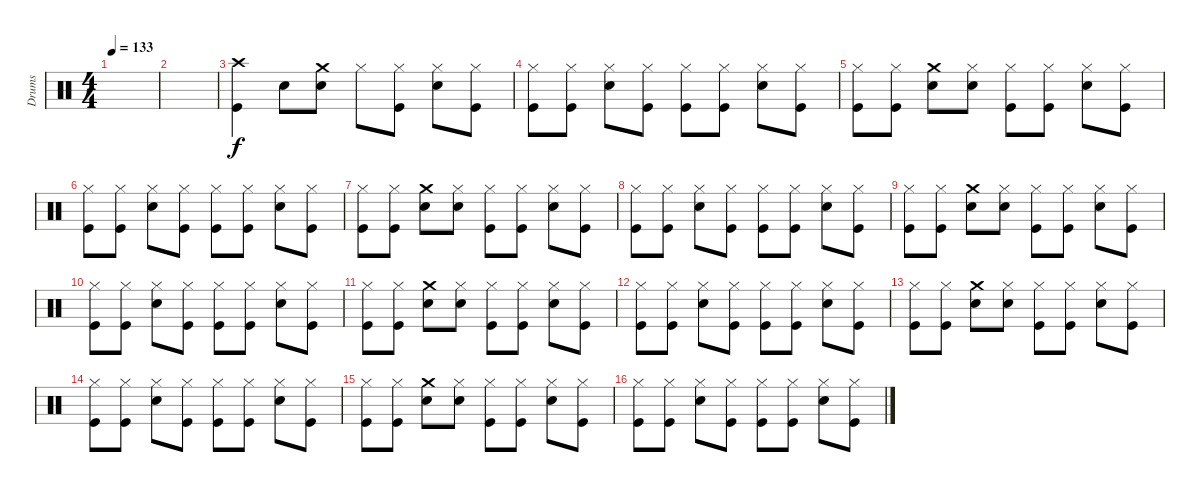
\track ("Drums" "Drums") {instrument percussion}
\staff {score}
\articulation defaults
\ts (4 4)
\tempo 133
\clef neutral
\ks c
|
|
("Crash high (hit)" "Kick (hit)").4 "Snare (hit) 2".8 ("Crash medium (hit)" "Snare (hit) 2").8 "Hi-Hat (closed)".8 ("Hi-Hat (closed)" "Kick (hit)").8 ("Hi-Hat (closed)" "Snare (hit) 2").8 ("Hi-Hat (closed)" "Kick (hit)").8 |
("Hi-Hat (closed)" "Kick (hit)").8 ("Hi-Hat (closed)" "Kick (hit)").8 ("Hi-Hat (closed)" "Snare (hit) 2").8 ("Hi-Hat (closed)" "Kick (hit)").8 ("Hi-Hat (closed)" "Kick (hit)").8 ("Hi-Hat (closed)" "Kick (hit)").8 ("Hi-Hat (closed)" "Snare (hit) 2").8 ("Hi-Hat (closed)" "Kick (hit)").8 |
("Hi-Hat (closed)" "Kick (hit)").8 ("Hi-Hat (closed)" "Kick (hit)").8 ("Crash medium (hit)" "Snare (hit) 2").8 ("Hi-Hat (closed)" "Snare (hit) 2").8 ("Hi-Hat (closed)" "Kick (hit)").8 ("Hi-Hat (closed)" "Kick (hit)").8 ("Hi-Hat (closed)" "Snare (hit) 2").8 ("Hi-Hat (closed)" "Kick (hit)").8 |
("Hi-Hat (closed)" "Kick (hit)").8 ("Hi-Hat (closed)" "Kick (hit)").8 ("Hi-Hat (closed)" "Snare (hit) 2").8 ("Hi-Hat (closed)" "Kick (hit)").8 ("Hi-Hat (closed)" "Kick (hit)").8 ("Hi-Hat (closed)" "Kick (hit)").8 ("Hi-Hat (closed)" "Snare (hit) 2").8 ("Hi-Hat (closed)" "Kick (hit)").8 |
("Hi-Hat (closed)" "Kick (hit)").8 ("Hi-Hat (closed)" "Kick (hit)").8 ("Crash medium (hit)" "Snare (hit) 2").8 ("Hi-Hat (closed)" "Snare (hit) 2").8 ("Hi-Hat (closed)" "Kick (hit)").8 ("Hi-Hat (closed)" "Kick (hit)").8 ("Hi-Hat (closed)" "Snare (hit) 2").8 ("Hi-Hat (closed)" "Kick (hit)").8 |
("Hi-Hat (closed)" "Kick (hit)").8 ("Hi-Hat (closed)" "Kick (hit)").8 ("Hi-Hat (closed)" "Snare (hit) 2").8 ("Hi-Hat (closed)" "Kick (hit)").8 ("Hi-Hat (closed)" "Kick (hit)").8 ("Hi-Hat (closed)" "Kick (hit)").8 ("Hi-Hat (closed)" "Snare (hit) 2").8 ("Hi-Hat (closed)" "Kick (hit)").8 |
("Hi-Hat (closed)" "Kick (hit)").8 ("Hi-Hat (closed)" "Kick (hit)").8 ("Crash medium (hit)" "Snare (hit) 2").8 ("Hi-Hat (closed)" "Snare (hit) 2").8 ("Hi-Hat (closed)" "Kick (hit)").8 ("Hi-Hat (closed)" "Kick (hit)").8 ("Hi-Hat (closed)" "Snare (hit) 2").8 ("Hi-Hat (closed)" "Kick (hit)").8 |
("Hi-Hat (closed)" "Kick (hit)").8 ("Hi-Hat (closed)" "Kick (hit)").8 ("Hi-Hat (closed)" "Snare (hit) 2").8 ("Hi-Hat (closed)" "Kick (hit)").8 ("Hi-Hat (closed)" "Kick (hit)").8 ("Hi-Hat (closed)" "Kick (hit)").8 ("Hi-Hat (closed)" "Snare (hit) 2").8 ("Hi-Hat (closed)" "Kick (hit)").8 |
("Hi-Hat (closed)" "Kick (hit)").8 ("Hi-Hat (closed)" "Kick (hit)").8 ("Crash medium (hit)" "Snare (hit) 2").8 ("Hi-Hat (closed)" "Snare (hit) 2").8 ("Hi-Hat (closed)" "Kick (hit)").8 ("Hi-Hat (closed)" "Kick (hit)").8 ("Hi-Hat (closed)" "Snare (hit) 2").8 ("Hi-Hat (closed)" "Kick (hit)").8 |
("Hi-Hat (closed)" "Kick (hit)").8 ("Hi-Hat (closed)" "Kick (hit)").8 ("Hi-Hat (closed)" "Snare (hit) 2").8 ("Hi-Hat (closed)" "Kick (hit)").8 ("Hi-Hat (closed)" "Kick (hit)").8 ("Hi-Hat (closed)" "Kick (hit)").8 ("Hi-Hat (closed)" "Snare (hit) 2").8 ("Hi-Hat (closed)" "Kick (hit)").8 |
("Hi-Hat (closed)" "Kick (hit)").8 ("Hi-Hat (closed)" "Kick (hit)").8 ("Crash medium (hit)" "Snare (hit) 2").8 ("Hi-Hat (closed)" "Snare (hit) 2").8 ("Hi-Hat (closed)" "Kick (hit)").8 ("Hi-Hat (closed)" "Kick (hit)").8 ("Hi-Hat (closed)" "Snare (hit) 2").8 ("Hi-Hat (closed)" "Kick (hit)").8 |
("Hi-Hat (closed)" "Kick (hit)").8 ("Hi-Hat (closed)" "Kick (hit)").8 ("Hi-Hat (closed)" "Snare (hit) 2").8 ("Hi-Hat (closed)" "Kick (hit)").8 ("Hi-Hat (closed)" "Kick (hit)").8 ("Hi-Hat (closed)" "Kick (hit)").8 ("Hi-Hat (closed)" "Snare (hit) 2").8 ("Hi-Hat (closed)" "Kick (hit)").8 |
("Hi-Hat (closed)" "Kick (hit)").8 ("Hi-Hat (closed)" "Kick (hit)").8 ("Crash medium (hit)" "Snare (hit) 2").8 ("Hi-Hat (closed)" "Snare (hit) 2").8 ("Hi-Hat (closed)" "Kick (hit)").8 ("Hi-Hat (closed)" "Kick (hit)").8 ("Hi-Hat (closed)" "Snare (hit) 2").8 ("Hi-Hat (closed)" "Kick (hit)").8 |
("Hi-Hat (closed)" "Kick (hit)").8 ("Hi-Hat (closed)" "Kick (hit)").8 ("Hi-Hat (closed)" "Snare (hit) 2").8 ("Hi-Hat (closed)" "Kick (hit)").8 ("Hi-Hat (closed)" "Kick (hit)").8 ("Hi-Hat (closed)" "Kick (hit)").8 ("Hi-Hat (closed)" "Snare (hit) 2").8 ("Hi-Hat (closed)" "Kick (hit)").8
